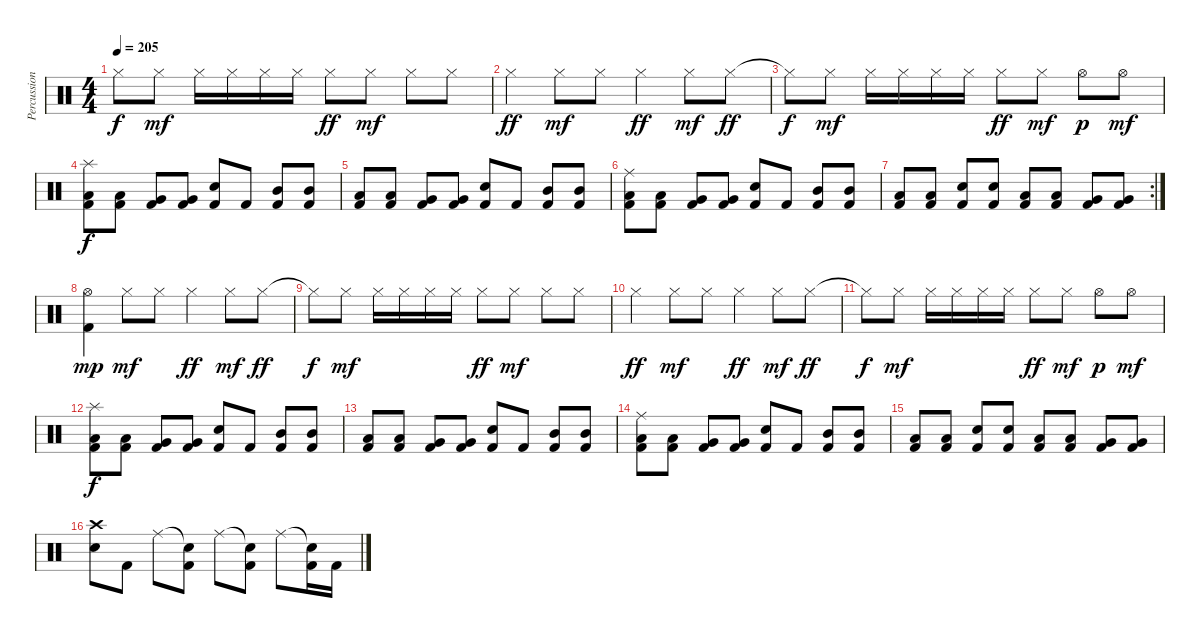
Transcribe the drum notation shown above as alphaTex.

\track ("Percussions" "Percussion") {instrument percussion}
\staff {score}
\articulation defaults
\ts (4 4)
\tempo 205
\clef neutral
\ks c "Hi-Hat (closed)"{t}.8{dy f} "Hi-Hat (closed)".8{dy mf} "Hi-Hat (closed)".16 "Hi-Hat (closed)".16 "Hi-Hat (closed)".16 "Hi-Hat (closed)".16 "Hi-Hat (closed)".8{dy ff} "Hi-Hat (closed)".8{dy mf} "Hi-Hat (closed)".8 "Hi-Hat (closed)".8
|
"Hi-Hat (closed)".4{dy ff} "Hi-Hat (closed)".8{dy mf} "Hi-Hat (closed)".8 "Hi-Hat (closed)".4{dy ff} "Hi-Hat (closed)".8{dy mf} "Hi-Hat (closed)".8{dy ff} |
"Hi-Hat (closed)"{t}.8{dy f} "Hi-Hat (closed)".8{dy mf} "Hi-Hat (closed)".16 "Hi-Hat (closed)".16 "Hi-Hat (closed)".16 "Hi-Hat (closed)".16 "Hi-Hat (closed)".8{dy ff} "Hi-Hat (closed)".8{dy mf} "Hi-Hat (open)".8{dy p} "Hi-Hat (open)".8{dy mf} |
("Splash (hit)" "Low Tom (hit)" "Kick (hit) 2").8{dy f} ("Low Tom (hit)" "Kick (hit) 2").8 ("Very Low Tom (hit)" "Kick (hit) 2").8 ("Very Low Tom (hit)" "Kick (hit) 2").8 ("Snare (hit) 2" "Kick (hit) 2").8 "Kick (hit) 2".8 ("Mid Tom (hit)" "Kick (hit) 2").8 ("Mid Tom (hit)" "Kick (hit) 2").8 |
("Low Tom (hit)" "Kick (hit) 2").8 ("Low Tom (hit)" "Kick (hit) 2").8 ("Very Low Tom (hit)" "Kick (hit) 2").8 ("Very Low Tom (hit)" "Kick (hit) 2").8 ("Snare (hit) 2" "Kick (hit) 2").8 "Kick (hit) 2".8 ("Mid Tom (hit)" "Kick (hit) 2").8 ("Mid Tom (hit)" "Kick (hit) 2").8 |
("Ride (middle)" "Low Tom (hit)" "Kick (hit) 2").8 ("Low Tom (hit)" "Kick (hit) 2").8 ("Very Low Tom (hit)" "Kick (hit) 2").8 ("Very Low Tom (hit)" "Kick (hit) 2").8 ("Snare (hit) 2" "Kick (hit) 2").8 "Kick (hit) 2".8 ("Mid Tom (hit)" "Kick (hit) 2").8 ("Mid Tom (hit)" "Kick (hit) 2").8 |
\rc 2
("Low Tom (hit)" "Kick (hit) 2").8 ("Low Tom (hit)" "Kick (hit) 2").8 ("Snare (hit) 2" "Kick (hit) 2").8 ("Snare (hit) 2" "Kick (hit) 2").8 ("Low Tom (hit)" "Kick (hit) 2").8 ("Low Tom (hit)" "Kick (hit) 2").8 ("Very Low Tom (hit)" "Kick (hit) 2").8 ("Very Low Tom (hit)" "Kick (hit) 2").8 |
("Hi-Hat (open)" "Kick (hit) 2").4{dy mp} "Hi-Hat (closed)".8{dy mf} "Hi-Hat (closed)".8 "Hi-Hat (closed)".4{dy ff} "Hi-Hat (closed)".8{dy mf} "Hi-Hat (closed)".8{dy ff} |
"Hi-Hat (closed)"{t}.8{dy f} "Hi-Hat (closed)".8{dy mf} "Hi-Hat (closed)".16 "Hi-Hat (closed)".16 "Hi-Hat (closed)".16 "Hi-Hat (closed)".16 "Hi-Hat (closed)".8{dy ff} "Hi-Hat (closed)".8{dy mf} "Hi-Hat (closed)".8 "Hi-Hat (closed)".8 |
"Hi-Hat (closed)".4{dy ff} "Hi-Hat (closed)".8{dy mf} "Hi-Hat (closed)".8 "Hi-Hat (closed)".4{dy ff} "Hi-Hat (closed)".8{dy mf} "Hi-Hat (closed)".8{dy ff} |
"Hi-Hat (closed)"{t}.8{dy f} "Hi-Hat (closed)".8{dy mf} "Hi-Hat (closed)".16 "Hi-Hat (closed)".16 "Hi-Hat (closed)".16 "Hi-Hat (closed)".16 "Hi-Hat (closed)".8{dy ff} "Hi-Hat (closed)".8{dy mf} "Hi-Hat (open)".8{dy p} "Hi-Hat (open)".8{dy mf} |
("Splash (hit)" "Low Tom (hit)" "Kick (hit) 2").8{dy f} ("Low Tom (hit)" "Kick (hit) 2").8 ("Very Low Tom (hit)" "Kick (hit) 2").8 ("Very Low Tom (hit)" "Kick (hit) 2").8 ("Snare (hit) 2" "Kick (hit) 2").8 "Kick (hit) 2".8 ("Mid Tom (hit)" "Kick (hit) 2").8 ("Mid Tom (hit)" "Kick (hit) 2").8 |
("Low Tom (hit)" "Kick (hit) 2").8 ("Low Tom (hit)" "Kick (hit) 2").8 ("Very Low Tom (hit)" "Kick (hit) 2").8 ("Very Low Tom (hit)" "Kick (hit) 2").8 ("Snare (hit) 2" "Kick (hit) 2").8 "Kick (hit) 2".8 ("Mid Tom (hit)" "Kick (hit) 2").8 ("Mid Tom (hit)" "Kick (hit) 2").8 |
("Ride (middle)" "Low Tom (hit)" "Kick (hit) 2").8 ("Low Tom (hit)" "Kick (hit) 2").8 ("Very Low Tom (hit)" "Kick (hit) 2").8 ("Very Low Tom (hit)" "Kick (hit) 2").8 ("Snare (hit) 2" "Kick (hit) 2").8 "Kick (hit) 2".8 ("Mid Tom (hit)" "Kick (hit) 2").8 ("Mid Tom (hit)" "Kick (hit) 2").8 |
("Low Tom (hit)" "Kick (hit) 2").8 ("Low Tom (hit)" "Kick (hit) 2").8 ("Snare (hit) 2" "Kick (hit) 2").8 ("Snare (hit) 2" "Kick (hit) 2").8 ("Low Tom (hit)" "Kick (hit) 2").8 ("Low Tom (hit)" "Kick (hit) 2").8 ("Very Low Tom (hit)" "Kick (hit) 2").8 ("Very Low Tom (hit)" "Kick (hit) 2").8 |
("Crash high (hit)" "Snare (hit) 2").8 "Kick (hit) 2".8 "Ride (middle)".8 ("Snare (hit)"{t} "Kick (hit) 2").8 "Ride (middle)".8 ("Snare (hit)"{t} "Kick (hit) 2").8 "Ride (middle)".8 ("Snare (hit)"{t} "Kick (hit) 2").16 "Kick (hit) 2".16
